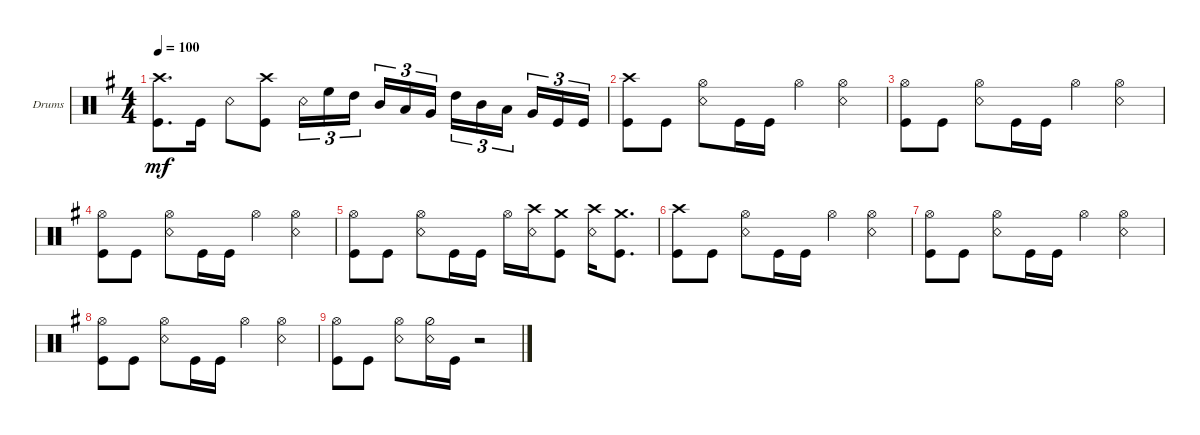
\defaultSystemsLayout 4
\bracketExtendMode groupsimilarinstruments
\firstSystemTrackNameOrientation horizontal
\otherSystemsTrackNameOrientation horizontal
\track ("Drumkit" "Drums") {instrument percussion}
\staff {score}
\articulation defaults
\ts (4 4)
\tempo 100
\clef neutral
\ks eminor
("Kick (hit)" "Crash high (hit)").8{d dy mf} "Kick (hit)".16 "Snare (rim shot)".8 ("Kick (hit)" "Crash high (hit)").8 "Snare (rim shot)".16{tu (3 2)} "High Floor Tom (hit)".16{tu (3 2)} "High Tom (hit)".16{tu (3 2)} "Mid Tom (hit)".16{tu (3 2)} "Low Tom (hit)".16{tu (3 2)} "Very Low Tom (hit)".16{tu (3 2)} "High Tom (hit)".16{tu (3 2)} "Mid Tom (hit)".16{tu (3 2)} "Low Tom (hit)".16{tu (3 2)} "Very Low Tom (hit)".16{tu (3 2)} "Kick (hit)".16{tu (3 2)} "Kick (hit)".16{tu (3 2)} |
("Kick (hit)" "Crash high (hit)").8 "Kick (hit)".8 ("Hi-Hat (open)" "Snare (rim shot)").8 "Kick (hit)".16 "Kick (hit)".16 "Hi-Hat (open)".4 ("Hi-Hat (open)" "Snare (rim shot)").4 |
("Kick (hit)" "Hi-Hat (open)").8 "Kick (hit)".8 ("Hi-Hat (open)" "Snare (rim shot)").8 "Kick (hit)".16 "Kick (hit)".16 "Hi-Hat (open)".4 ("Hi-Hat (open)" "Snare (rim shot)").4 |
("Kick (hit)" "Hi-Hat (open)").8 "Kick (hit)".8 ("Hi-Hat (open)" "Snare (rim shot)").8 "Kick (hit)".16 "Kick (hit)".16 "Hi-Hat (open)".4 ("Hi-Hat (open)" "Snare (rim shot)").4 |
("Kick (hit)" "Hi-Hat (open)").8 "Kick (hit)".8 ("Hi-Hat (open)" "Snare (rim shot)").8 "Kick (hit)".16 "Kick (hit)".16 "Hi-Hat (open)".16 ("Snare (rim shot)" "Crash high (hit)").16 ("Kick (hit)" "Crash medium (hit)").8 ("Snare (rim shot)" "Crash high (hit)").16 ("Kick (hit)" "Crash medium (hit)").8{d} |
("Kick (hit)" "Crash high (hit)").8 "Kick (hit)".8 ("Hi-Hat (open)" "Snare (rim shot)").8 "Kick (hit)".16 "Kick (hit)".16 "Hi-Hat (open)".4 ("Hi-Hat (open)" "Snare (rim shot)").4 |
("Kick (hit)" "Hi-Hat (open)").8 "Kick (hit)".8 ("Hi-Hat (open)" "Snare (rim shot)").8 "Kick (hit)".16 "Kick (hit)".16 "Hi-Hat (open)".4 ("Hi-Hat (open)" "Snare (rim shot)").4 |
("Kick (hit)" "Hi-Hat (open)").8 "Kick (hit)".8 ("Hi-Hat (open)" "Snare (rim shot)").8 "Kick (hit)".16 "Kick (hit)".16 "Hi-Hat (open)".4 ("Hi-Hat (open)" "Snare (rim shot)").4 |
("Kick (hit)" "Hi-Hat (open)").8 "Kick (hit)".8 ("Hi-Hat (open)" "Snare (rim shot)").8 ("Snare (rim shot)" "Hi-Hat (half)").16 "Kick (hit)".16 r.2
